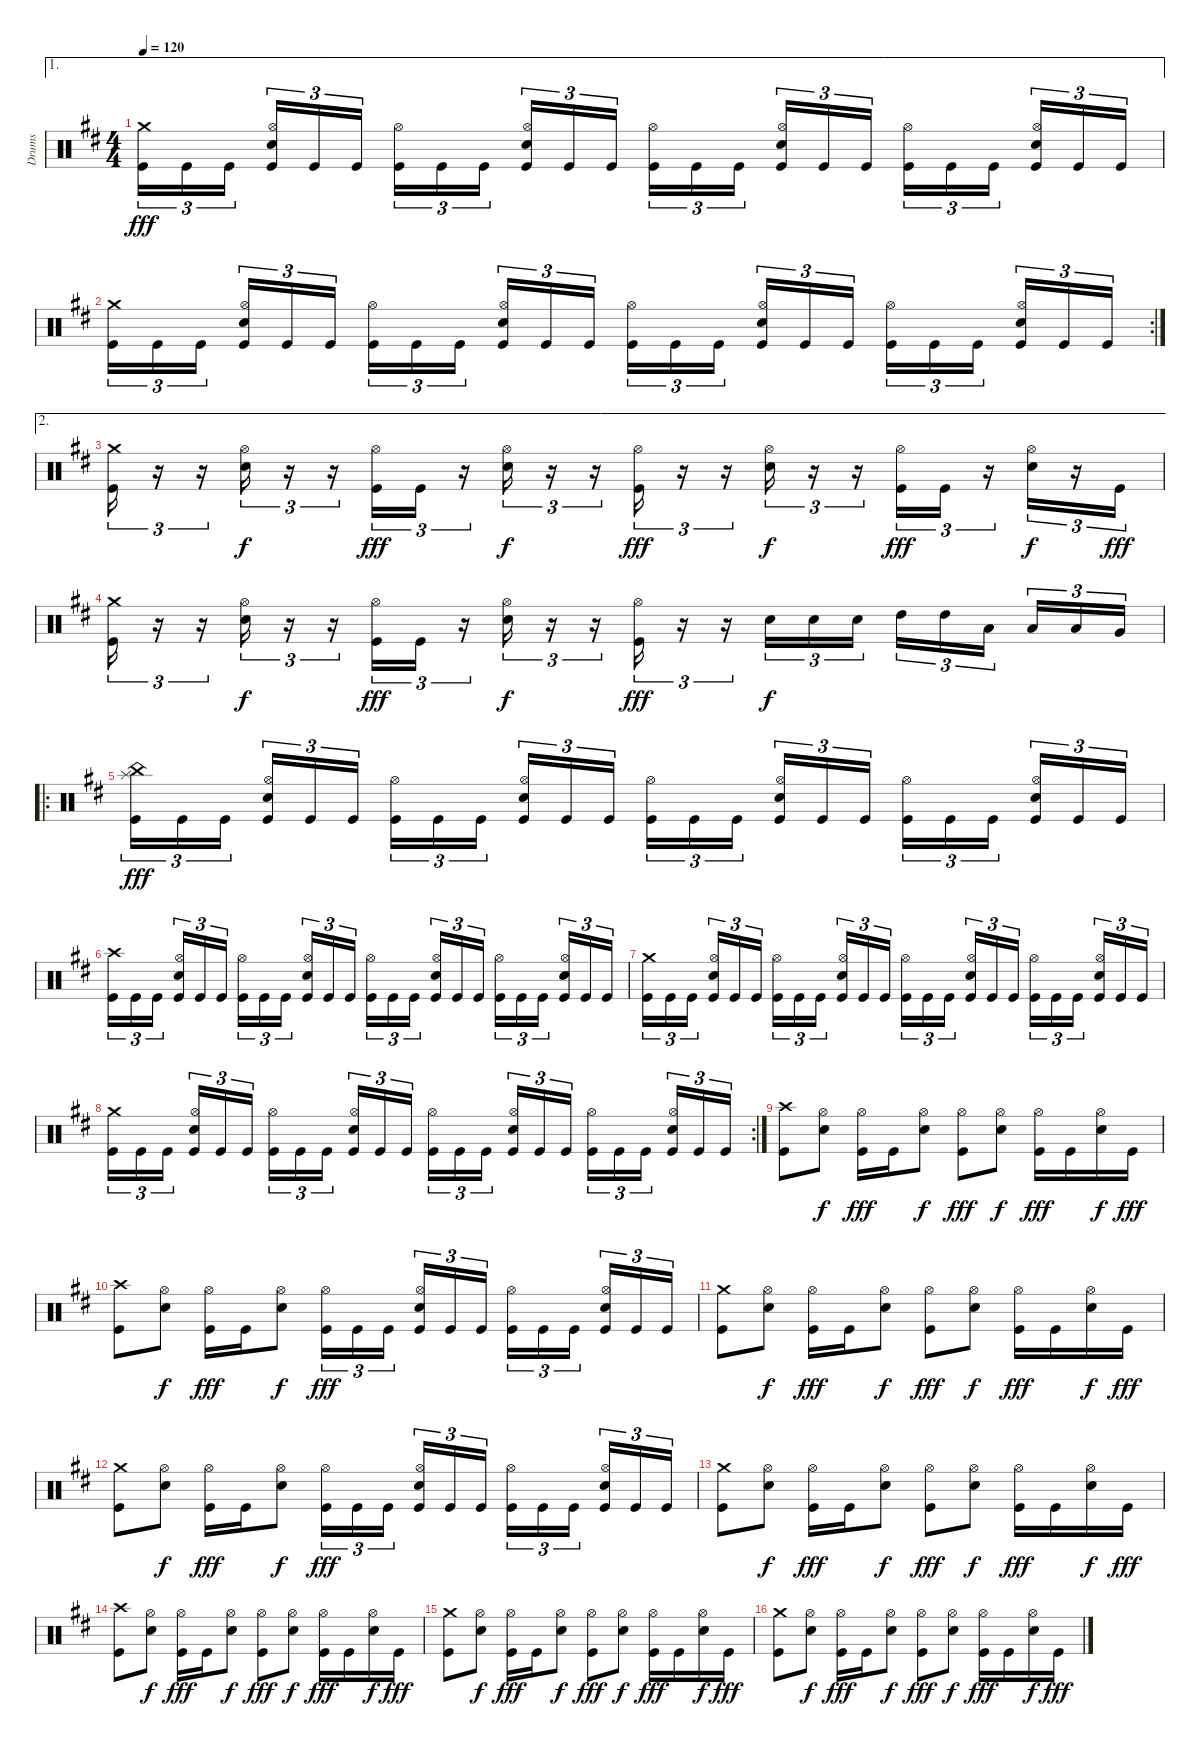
\track ("Drums" "Drums") {instrument percussion}
\staff {score}
\articulation defaults
\ae 1
\ts (4 4)
\tempo 120
\clef neutral
\ks d
("Crash medium (hit)" "Kick (hit)").16{tu (3 2) dy fff} "Kick (hit)".16{tu (3 2)} "Kick (hit)".16{tu (3 2)} ("Hi-Hat (open)" "Snare (hit) 2" "Kick (hit)").16{tu (3 2)} "Kick (hit)".16{tu (3 2)} "Kick (hit)".16{tu (3 2)} ("Hi-Hat (open)" "Kick (hit)").16{tu (3 2)} "Kick (hit)".16{tu (3 2)} "Kick (hit)".16{tu (3 2)} ("Hi-Hat (open)" "Snare (hit) 2" "Kick (hit)").16{tu (3 2)} "Kick (hit)".16{tu (3 2)} "Kick (hit)".16{tu (3 2)} ("Hi-Hat (open)" "Kick (hit)").16{tu (3 2)} "Kick (hit)".16{tu (3 2)} "Kick (hit)".16{tu (3 2)} ("Hi-Hat (open)" "Snare (hit) 2" "Kick (hit)").16{tu (3 2)} "Kick (hit)".16{tu (3 2)} "Kick (hit)".16{tu (3 2)} ("Hi-Hat (open)" "Kick (hit)").16{tu (3 2)} "Kick (hit)".16{tu (3 2)} "Kick (hit)".16{tu (3 2)} ("Hi-Hat (open)" "Snare (hit) 2" "Kick (hit)").16{tu (3 2)} "Kick (hit)".16{tu (3 2)} "Kick (hit)".16{tu (3 2)} |
\rc 2
("Crash medium (hit)" "Kick (hit)").16{tu (3 2)} "Kick (hit)".16{tu (3 2)} "Kick (hit)".16{tu (3 2)} ("Hi-Hat (open)" "Snare (hit) 2" "Kick (hit)").16{tu (3 2)} "Kick (hit)".16{tu (3 2)} "Kick (hit)".16{tu (3 2)} ("Hi-Hat (open)" "Kick (hit)").16{tu (3 2)} "Kick (hit)".16{tu (3 2)} "Kick (hit)".16{tu (3 2)} ("Hi-Hat (open)" "Snare (hit) 2" "Kick (hit)").16{tu (3 2)} "Kick (hit)".16{tu (3 2)} "Kick (hit)".16{tu (3 2)} ("Hi-Hat (open)" "Kick (hit)").16{tu (3 2)} "Kick (hit)".16{tu (3 2)} "Kick (hit)".16{tu (3 2)} ("Hi-Hat (open)" "Snare (hit) 2" "Kick (hit)").16{tu (3 2)} "Kick (hit)".16{tu (3 2)} "Kick (hit)".16{tu (3 2)} ("Hi-Hat (open)" "Kick (hit)").16{tu (3 2)} "Kick (hit)".16{tu (3 2)} "Kick (hit)".16{tu (3 2)} ("Hi-Hat (open)" "Snare (hit) 2" "Kick (hit)").16{tu (3 2)} "Kick (hit)".16{tu (3 2)} "Kick (hit)".16{tu (3 2)} |
\ae 2
("Crash medium (hit)" "Kick (hit)").16{tu (3 2)} r.16{tu (3 2)} r.16{tu (3 2)} ("Hi-Hat (open)" "Snare (hit) 2").16{tu (3 2) dy f} r.16{tu (3 2)} r.16{tu (3 2)} ("Hi-Hat (open)" "Kick (hit)").16{tu (3 2) dy fff} "Kick (hit)".16{tu (3 2)} r.16{tu (3 2)} ("Hi-Hat (open)" "Snare (hit) 2").16{tu (3 2) dy f} r.16{tu (3 2)} r.16{tu (3 2)} ("Hi-Hat (open)" "Kick (hit)").16{tu (3 2) dy fff} r.16{tu (3 2)} r.16{tu (3 2)} ("Hi-Hat (open)" "Snare (hit) 2").16{tu (3 2) dy f} r.16{tu (3 2)} r.16{tu (3 2)} ("Hi-Hat (open)" "Kick (hit)").16{tu (3 2) dy fff} "Kick (hit)".16{tu (3 2)} r.16{tu (3 2)} ("Hi-Hat (open)" "Snare (hit) 2").16{tu (3 2) dy f} r.16{tu (3 2)} "Kick (hit)".16{tu (3 2) dy fff} |
("Crash medium (hit)" "Kick (hit)").16{tu (3 2)} r.16{tu (3 2)} r.16{tu (3 2)} ("Hi-Hat (open)" "Snare (hit) 2").16{tu (3 2) dy f} r.16{tu (3 2)} r.16{tu (3 2)} ("Hi-Hat (open)" "Kick (hit)").16{tu (3 2) dy fff} "Kick (hit)".16{tu (3 2)} r.16{tu (3 2)} ("Hi-Hat (open)" "Snare (hit) 2").16{tu (3 2) dy f} r.16{tu (3 2)} r.16{tu (3 2)} ("Hi-Hat (open)" "Kick (hit)").16{tu (3 2) dy fff} r.16{tu (3 2)} r.16{tu (3 2)} "Snare (hit) 2".16{tu (3 2) dy f} "Snare (hit) 2".16{tu (3 2)} "Snare (hit) 2".16{tu (3 2)} "High Tom (hit)".16{tu (3 2)} "High Tom (hit)".16{tu (3 2)} "Low Tom (hit)".16{tu (3 2)} "Low Tom (hit)".16{tu (3 2)} "Low Tom (hit)".16{tu (3 2)} "Very Low Tom (hit)".16{tu (3 2)} |
\ro
("China (hit)" "Splash (hit)" "Kick (hit)").16{tu (3 2) dy fff} "Kick (hit)".16{tu (3 2)} "Kick (hit)".16{tu (3 2)} ("Hi-Hat (open)" "Snare (hit) 2" "Kick (hit)").16{tu (3 2)} "Kick (hit)".16{tu (3 2)} "Kick (hit)".16{tu (3 2)} ("Hi-Hat (open)" "Kick (hit)").16{tu (3 2)} "Kick (hit)".16{tu (3 2)} "Kick (hit)".16{tu (3 2)} ("Hi-Hat (open)" "Snare (hit) 2" "Kick (hit)").16{tu (3 2)} "Kick (hit)".16{tu (3 2)} "Kick (hit)".16{tu (3 2)} ("Hi-Hat (open)" "Kick (hit)").16{tu (3 2)} "Kick (hit)".16{tu (3 2)} "Kick (hit)".16{tu (3 2)} ("Hi-Hat (open)" "Snare (hit) 2" "Kick (hit)").16{tu (3 2)} "Kick (hit)".16{tu (3 2)} "Kick (hit)".16{tu (3 2)} ("Hi-Hat (open)" "Kick (hit)").16{tu (3 2)} "Kick (hit)".16{tu (3 2)} "Kick (hit)".16{tu (3 2)} ("Hi-Hat (open)" "Snare (hit) 2" "Kick (hit)").16{tu (3 2)} "Kick (hit)".16{tu (3 2)} "Kick (hit)".16{tu (3 2)} |
("Crash high (hit)" "Kick (hit)").16{tu (3 2)} "Kick (hit)".16{tu (3 2)} "Kick (hit)".16{tu (3 2)} ("Hi-Hat (open)" "Snare (hit) 2" "Kick (hit)").16{tu (3 2)} "Kick (hit)".16{tu (3 2)} "Kick (hit)".16{tu (3 2)} ("Hi-Hat (open)" "Kick (hit)").16{tu (3 2)} "Kick (hit)".16{tu (3 2)} "Kick (hit)".16{tu (3 2)} ("Hi-Hat (open)" "Snare (hit) 2" "Kick (hit)").16{tu (3 2)} "Kick (hit)".16{tu (3 2)} "Kick (hit)".16{tu (3 2)} ("Hi-Hat (open)" "Kick (hit)").16{tu (3 2)} "Kick (hit)".16{tu (3 2)} "Kick (hit)".16{tu (3 2)} ("Hi-Hat (open)" "Snare (hit) 2" "Kick (hit)").16{tu (3 2)} "Kick (hit)".16{tu (3 2)} "Kick (hit)".16{tu (3 2)} ("Hi-Hat (open)" "Kick (hit)").16{tu (3 2)} "Kick (hit)".16{tu (3 2)} "Kick (hit)".16{tu (3 2)} ("Hi-Hat (open)" "Snare (hit) 2" "Kick (hit)").16{tu (3 2)} "Kick (hit)".16{tu (3 2)} "Kick (hit)".16{tu (3 2)} |
("Crash medium (hit)" "Kick (hit)").16{tu (3 2)} "Kick (hit)".16{tu (3 2)} "Kick (hit)".16{tu (3 2)} ("Hi-Hat (open)" "Snare (hit) 2" "Kick (hit)").16{tu (3 2)} "Kick (hit)".16{tu (3 2)} "Kick (hit)".16{tu (3 2)} ("Hi-Hat (open)" "Kick (hit)").16{tu (3 2)} "Kick (hit)".16{tu (3 2)} "Kick (hit)".16{tu (3 2)} ("Hi-Hat (open)" "Snare (hit) 2" "Kick (hit)").16{tu (3 2)} "Kick (hit)".16{tu (3 2)} "Kick (hit)".16{tu (3 2)} ("Hi-Hat (open)" "Kick (hit)").16{tu (3 2)} "Kick (hit)".16{tu (3 2)} "Kick (hit)".16{tu (3 2)} ("Hi-Hat (open)" "Snare (hit) 2" "Kick (hit)").16{tu (3 2)} "Kick (hit)".16{tu (3 2)} "Kick (hit)".16{tu (3 2)} ("Hi-Hat (open)" "Kick (hit)").16{tu (3 2)} "Kick (hit)".16{tu (3 2)} "Kick (hit)".16{tu (3 2)} ("Hi-Hat (open)" "Snare (hit) 2" "Kick (hit)").16{tu (3 2)} "Kick (hit)".16{tu (3 2)} "Kick (hit)".16{tu (3 2)} |
\rc 2
("Crash medium (hit)" "Kick (hit)").16{tu (3 2)} "Kick (hit)".16{tu (3 2)} "Kick (hit)".16{tu (3 2)} ("Hi-Hat (open)" "Snare (hit) 2" "Kick (hit)").16{tu (3 2)} "Kick (hit)".16{tu (3 2)} "Kick (hit)".16{tu (3 2)} ("Hi-Hat (open)" "Kick (hit)").16{tu (3 2)} "Kick (hit)".16{tu (3 2)} "Kick (hit)".16{tu (3 2)} ("Hi-Hat (open)" "Snare (hit) 2" "Kick (hit)").16{tu (3 2)} "Kick (hit)".16{tu (3 2)} "Kick (hit)".16{tu (3 2)} ("Hi-Hat (open)" "Kick (hit)").16{tu (3 2)} "Kick (hit)".16{tu (3 2)} "Kick (hit)".16{tu (3 2)} ("Hi-Hat (open)" "Snare (hit) 2" "Kick (hit)").16{tu (3 2)} "Kick (hit)".16{tu (3 2)} "Kick (hit)".16{tu (3 2)} ("Hi-Hat (open)" "Kick (hit)").16{tu (3 2)} "Kick (hit)".16{tu (3 2)} "Kick (hit)".16{tu (3 2)} ("Hi-Hat (open)" "Snare (hit) 2" "Kick (hit)").16{tu (3 2)} "Kick (hit)".16{tu (3 2)} "Kick (hit)".16{tu (3 2)} |
("Crash high (hit)" "Kick (hit)").8 ("Hi-Hat (open)" "Snare (hit) 2").8{dy f} ("Hi-Hat (open)" "Kick (hit)").16{dy fff} "Kick (hit)".16 ("Hi-Hat (open)" "Snare (hit) 2").8{dy f} ("Hi-Hat (open)" "Kick (hit)").8{dy fff} ("Hi-Hat (open)" "Snare (hit) 2").8{dy f} ("Hi-Hat (open)" "Kick (hit)").16{dy fff} "Kick (hit)".16 ("Hi-Hat (open)" "Snare (hit) 2").16{dy f} "Kick (hit)".16{dy fff} |
("Crash high (hit)" "Kick (hit)").8 ("Hi-Hat (open)" "Snare (hit) 2").8{dy f} ("Hi-Hat (open)" "Kick (hit)").16{dy fff} "Kick (hit)".16 ("Hi-Hat (open)" "Snare (hit) 2").8{dy f} ("Hi-Hat (open)" "Kick (hit)").16{tu (3 2) dy fff} "Kick (hit)".16{tu (3 2)} "Kick (hit)".16{tu (3 2)} ("Hi-Hat (open)" "Snare (hit) 2" "Kick (hit)").16{tu (3 2)} "Kick (hit)".16{tu (3 2)} "Kick (hit)".16{tu (3 2)} ("Hi-Hat (open)" "Kick (hit)").16{tu (3 2)} "Kick (hit)".16{tu (3 2)} "Kick (hit)".16{tu (3 2)} ("Hi-Hat (open)" "Snare (hit) 2" "Kick (hit)").16{tu (3 2)} "Kick (hit)".16{tu (3 2)} "Kick (hit)".16{tu (3 2)} |
("Crash medium (hit)" "Kick (hit)").8 ("Hi-Hat (open)" "Snare (hit) 2").8{dy f} ("Hi-Hat (open)" "Kick (hit)").16{dy fff} "Kick (hit)".16 ("Hi-Hat (open)" "Snare (hit) 2").8{dy f} ("Hi-Hat (open)" "Kick (hit)").8{dy fff} ("Hi-Hat (open)" "Snare (hit) 2").8{dy f} ("Hi-Hat (open)" "Kick (hit)").16{dy fff} "Kick (hit)".16 ("Hi-Hat (open)" "Snare (hit) 2").16{dy f} "Kick (hit)".16{dy fff} |
("Crash medium (hit)" "Kick (hit)").8 ("Hi-Hat (open)" "Snare (hit) 2").8{dy f} ("Hi-Hat (open)" "Kick (hit)").16{dy fff} "Kick (hit)".16 ("Hi-Hat (open)" "Snare (hit) 2").8{dy f} ("Hi-Hat (open)" "Kick (hit)").16{tu (3 2) dy fff} "Kick (hit)".16{tu (3 2)} "Kick (hit)".16{tu (3 2)} ("Hi-Hat (open)" "Snare (hit) 2" "Kick (hit)").16{tu (3 2)} "Kick (hit)".16{tu (3 2)} "Kick (hit)".16{tu (3 2)} ("Hi-Hat (open)" "Kick (hit)").16{tu (3 2)} "Kick (hit)".16{tu (3 2)} "Kick (hit)".16{tu (3 2)} ("Hi-Hat (open)" "Snare (hit) 2" "Kick (hit)").16{tu (3 2)} "Kick (hit)".16{tu (3 2)} "Kick (hit)".16{tu (3 2)} |
("Crash medium (hit)" "Kick (hit)").8 ("Hi-Hat (open)" "Snare (hit) 2").8{dy f} ("Hi-Hat (open)" "Kick (hit)").16{dy fff} "Kick (hit)".16 ("Hi-Hat (open)" "Snare (hit) 2").8{dy f} ("Hi-Hat (open)" "Kick (hit)").8{dy fff} ("Hi-Hat (open)" "Snare (hit) 2").8{dy f} ("Hi-Hat (open)" "Kick (hit)").16{dy fff} "Kick (hit)".16 ("Hi-Hat (open)" "Snare (hit) 2").16{dy f} "Kick (hit)".16{dy fff} |
("Crash high (hit)" "Kick (hit)").8 ("Hi-Hat (open)" "Snare (hit) 2").8{dy f} ("Hi-Hat (open)" "Kick (hit)").16{dy fff} "Kick (hit)".16 ("Hi-Hat (open)" "Snare (hit) 2").8{dy f} ("Hi-Hat (open)" "Kick (hit)").8{dy fff} ("Hi-Hat (open)" "Snare (hit) 2").8{dy f} ("Hi-Hat (open)" "Kick (hit)").16{dy fff} "Kick (hit)".16 ("Hi-Hat (open)" "Snare (hit) 2").16{dy f} "Kick (hit)".16{dy fff} |
("Crash medium (hit)" "Kick (hit)").8 ("Hi-Hat (open)" "Snare (hit) 2").8{dy f} ("Hi-Hat (open)" "Kick (hit)").16{dy fff} "Kick (hit)".16 ("Hi-Hat (open)" "Snare (hit) 2").8{dy f} ("Hi-Hat (open)" "Kick (hit)").8{dy fff} ("Hi-Hat (open)" "Snare (hit) 2").8{dy f} ("Hi-Hat (open)" "Kick (hit)").16{dy fff} "Kick (hit)".16 ("Hi-Hat (open)" "Snare (hit) 2").16{dy f} "Kick (hit)".16{dy fff} |
("Crash medium (hit)" "Kick (hit)").8 ("Hi-Hat (open)" "Snare (hit) 2").8{dy f} ("Hi-Hat (open)" "Kick (hit)").16{dy fff} "Kick (hit)".16 ("Hi-Hat (open)" "Snare (hit) 2").8{dy f} ("Hi-Hat (open)" "Kick (hit)").8{dy fff} ("Hi-Hat (open)" "Snare (hit) 2").8{dy f} ("Hi-Hat (open)" "Kick (hit)").16{dy fff} "Kick (hit)".16 ("Hi-Hat (open)" "Snare (hit) 2").16{dy f} "Kick (hit)".16{dy fff}
